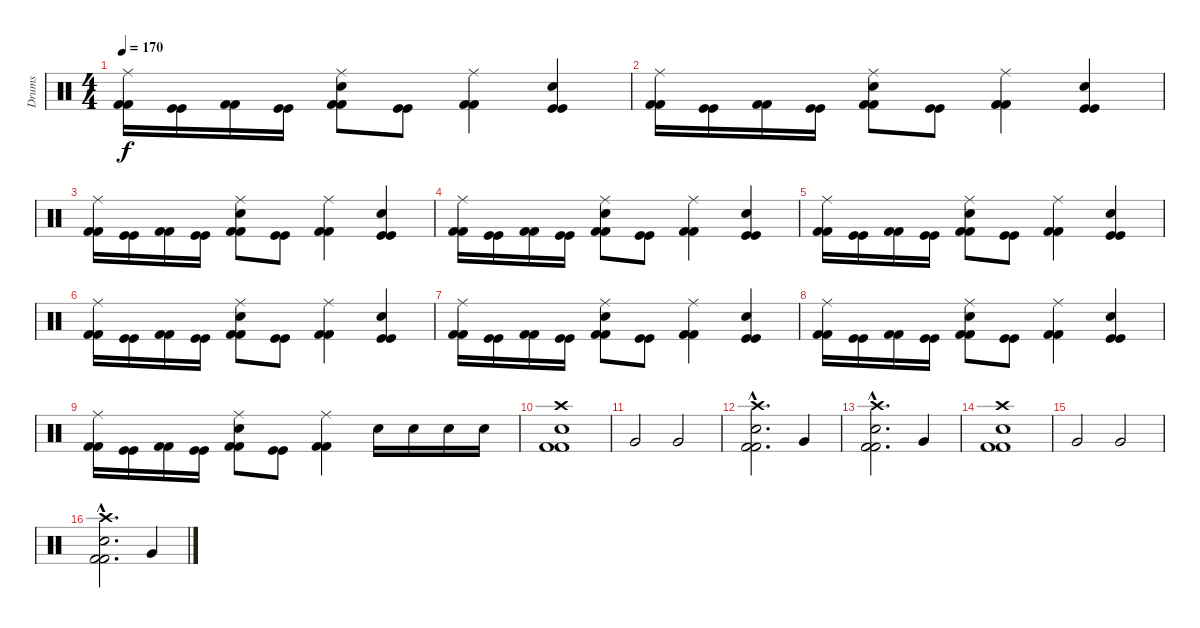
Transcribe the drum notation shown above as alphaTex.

\track ("Drums" "Drums") {instrument percussion}
\staff {score}
\articulation defaults
\ts (4 4)
\tempo 170
\clef neutral
\ks c
("Ride (middle)" "Kick (hit) 2" "Kick (hit) 2").16{dy f} ("Kick (hit)" "Kick (hit)").16 ("Kick (hit) 2" "Kick (hit) 2").16 ("Kick (hit)" "Kick (hit)").16 ("Ride (middle)" "Electric Snare (hit)" "Kick (hit) 2" "Kick (hit) 2").8 ("Kick (hit)" "Kick (hit)").8 ("Ride (middle)" "Kick (hit) 2" "Kick (hit) 2").4 ("Electric Snare (hit)" "Kick (hit)" "Kick (hit)").4 |
("Ride (middle)" "Kick (hit) 2" "Kick (hit) 2").16 ("Kick (hit)" "Kick (hit)").16 ("Kick (hit) 2" "Kick (hit) 2").16 ("Kick (hit)" "Kick (hit)").16 ("Ride (middle)" "Electric Snare (hit)" "Kick (hit) 2" "Kick (hit) 2").8 ("Kick (hit)" "Kick (hit)").8 ("Ride (middle)" "Kick (hit) 2" "Kick (hit) 2").4 ("Electric Snare (hit)" "Kick (hit)" "Kick (hit)").4 |
("Ride (middle)" "Kick (hit) 2" "Kick (hit) 2").16 ("Kick (hit)" "Kick (hit)").16 ("Kick (hit) 2" "Kick (hit) 2").16 ("Kick (hit)" "Kick (hit)").16 ("Ride (middle)" "Electric Snare (hit)" "Kick (hit) 2" "Kick (hit) 2").8 ("Kick (hit)" "Kick (hit)").8 ("Ride (middle)" "Kick (hit) 2" "Kick (hit) 2").4 ("Electric Snare (hit)" "Kick (hit)" "Kick (hit)").4 |
("Ride (middle)" "Kick (hit) 2" "Kick (hit) 2").16 ("Kick (hit)" "Kick (hit)").16 ("Kick (hit) 2" "Kick (hit) 2").16 ("Kick (hit)" "Kick (hit)").16 ("Ride (middle)" "Electric Snare (hit)" "Kick (hit) 2" "Kick (hit) 2").8 ("Kick (hit)" "Kick (hit)").8 ("Ride (middle)" "Kick (hit) 2" "Kick (hit) 2").4 ("Electric Snare (hit)" "Kick (hit)" "Kick (hit)").4 |
("Ride (middle)" "Kick (hit) 2" "Kick (hit) 2").16 ("Kick (hit)" "Kick (hit)").16 ("Kick (hit) 2" "Kick (hit) 2").16 ("Kick (hit)" "Kick (hit)").16 ("Ride (middle)" "Electric Snare (hit)" "Kick (hit) 2" "Kick (hit) 2").8 ("Kick (hit)" "Kick (hit)").8 ("Ride (middle)" "Kick (hit) 2" "Kick (hit) 2").4 ("Electric Snare (hit)" "Kick (hit)" "Kick (hit)").4 |
("Ride (middle)" "Kick (hit) 2" "Kick (hit) 2").16 ("Kick (hit)" "Kick (hit)").16 ("Kick (hit) 2" "Kick (hit) 2").16 ("Kick (hit)" "Kick (hit)").16 ("Ride (middle)" "Electric Snare (hit)" "Kick (hit) 2" "Kick (hit) 2").8 ("Kick (hit)" "Kick (hit)").8 ("Ride (middle)" "Kick (hit) 2" "Kick (hit) 2").4 ("Electric Snare (hit)" "Kick (hit)" "Kick (hit)").4 |
("Ride (middle)" "Kick (hit) 2" "Kick (hit) 2").16 ("Kick (hit)" "Kick (hit)").16 ("Kick (hit) 2" "Kick (hit) 2").16 ("Kick (hit)" "Kick (hit)").16 ("Ride (middle)" "Electric Snare (hit)" "Kick (hit) 2" "Kick (hit) 2").8 ("Kick (hit)" "Kick (hit)").8 ("Ride (middle)" "Kick (hit) 2" "Kick (hit) 2").4 ("Electric Snare (hit)" "Kick (hit)" "Kick (hit)").4 |
("Ride (middle)" "Kick (hit) 2" "Kick (hit) 2").16 ("Kick (hit)" "Kick (hit)").16 ("Kick (hit) 2" "Kick (hit) 2").16 ("Kick (hit)" "Kick (hit)").16 ("Ride (middle)" "Electric Snare (hit)" "Kick (hit) 2" "Kick (hit) 2").8 ("Kick (hit)" "Kick (hit)").8 ("Ride (middle)" "Kick (hit) 2" "Kick (hit) 2").4 ("Electric Snare (hit)" "Kick (hit)" "Kick (hit)").4 |
("Ride (middle)" "Kick (hit) 2" "Kick (hit) 2").16 ("Kick (hit)" "Kick (hit)").16 ("Kick (hit) 2" "Kick (hit) 2").16 ("Kick (hit)" "Kick (hit)").16 ("Ride (middle)" "Electric Snare (hit)" "Kick (hit) 2" "Kick (hit) 2").8 ("Kick (hit)" "Kick (hit)").8 ("Ride (middle)" "Kick (hit) 2" "Kick (hit) 2").4 "Electric Snare (hit)".16 "Electric Snare (hit)".16 "Electric Snare (hit)".16 "Electric Snare (hit)".16 |
("Crash high (hit)" "Electric Snare (hit)" "Kick (hit) 2" "Kick (hit) 2").1 |
"Very Low Tom (hit)".2 "Very Low Tom (hit)".2 |
("Crash high (hit)"{hac} "Electric Snare (hit)"{hac} "Kick (hit) 2"{hac} "Kick (hit) 2"{hac}).2{d} "Very Low Tom (hit)".4 |
("Crash high (hit)"{hac} "Electric Snare (hit)"{hac} "Kick (hit) 2"{hac} "Kick (hit) 2"{hac}).2{d} "Very Low Tom (hit)".4 |
("Crash high (hit)" "Electric Snare (hit)" "Kick (hit) 2" "Kick (hit) 2").1 |
"Very Low Tom (hit)".2 "Very Low Tom (hit)".2 |
("Crash high (hit)"{hac} "Electric Snare (hit)"{hac} "Kick (hit) 2"{hac} "Kick (hit) 2"{hac}).2{d} "Very Low Tom (hit)".4
